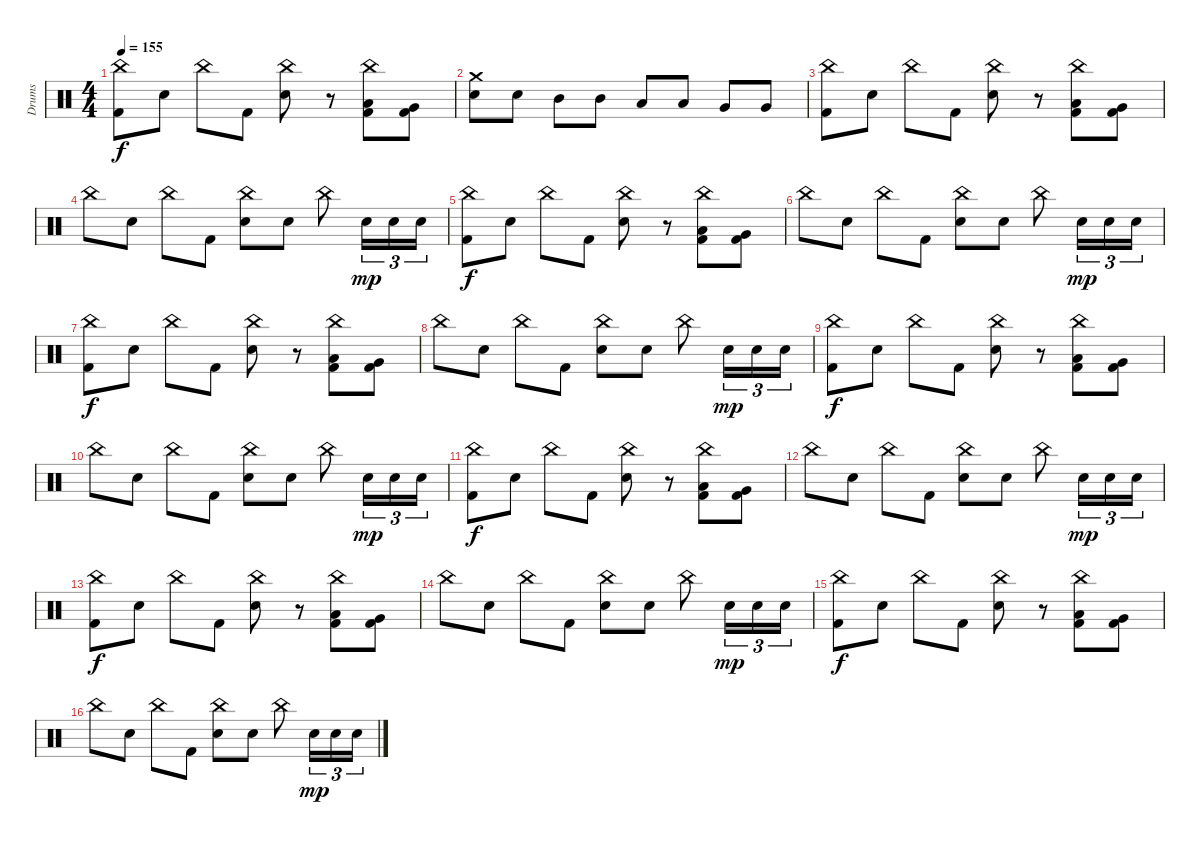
\track ("Drums" "Drums") {instrument percussion}
\staff {score}
\articulation defaults
\ts (4 4)
\tempo 155
\clef neutral
\ks c
("China (hit)" "Kick (hit) 2").8{dy f} "Electric Snare (hit)".8 "China (hit)".8 "Kick (hit) 2".8 ("China (hit)" "Electric Snare (hit)").8 r.8 ("China (hit)" "Low Tom (hit)" "Kick (hit) 2").8 ("Very Low Tom (hit)" "Kick (hit) 2").8 |
("Crash medium (hit)" "Electric Snare (hit)").8 "Electric Snare (hit)".8 "Mid Tom (hit)".8 "Mid Tom (hit)".8 "Low Tom (hit)".8 "Low Tom (hit)".8 "Very Low Tom (hit)".8 "Very Low Tom (hit)".8 |
("China (hit)" "Kick (hit) 2").8 "Electric Snare (hit)".8 "China (hit)".8 "Kick (hit) 2".8 ("China (hit)" "Electric Snare (hit)").8 r.8 ("China (hit)" "Low Tom (hit)" "Kick (hit) 2").8 ("Very Low Tom (hit)" "Kick (hit) 2").8 |
"China (hit)".8 "Electric Snare (hit)".8 "China (hit)".8 "Kick (hit) 2".8 ("China (hit)" "Electric Snare (hit)").8 "Electric Snare (hit)".8 "China (hit)".8 "Electric Snare (hit)".16{tu (3 2) dy mp} "Electric Snare (hit)".16{tu (3 2)} "Electric Snare (hit)".16{tu (3 2)} |
("China (hit)" "Kick (hit) 2").8{dy f} "Electric Snare (hit)".8 "China (hit)".8 "Kick (hit) 2".8 ("China (hit)" "Electric Snare (hit)").8 r.8 ("China (hit)" "Low Tom (hit)" "Kick (hit) 2").8 ("Very Low Tom (hit)" "Kick (hit) 2").8 |
"China (hit)".8 "Electric Snare (hit)".8 "China (hit)".8 "Kick (hit) 2".8 ("China (hit)" "Electric Snare (hit)").8 "Electric Snare (hit)".8 "China (hit)".8 "Electric Snare (hit)".16{tu (3 2) dy mp} "Electric Snare (hit)".16{tu (3 2)} "Electric Snare (hit)".16{tu (3 2)} |
("China (hit)" "Kick (hit) 2").8{dy f} "Electric Snare (hit)".8 "China (hit)".8 "Kick (hit) 2".8 ("China (hit)" "Electric Snare (hit)").8 r.8 ("China (hit)" "Low Tom (hit)" "Kick (hit) 2").8 ("Very Low Tom (hit)" "Kick (hit) 2").8 |
"China (hit)".8 "Electric Snare (hit)".8 "China (hit)".8 "Kick (hit) 2".8 ("China (hit)" "Electric Snare (hit)").8 "Electric Snare (hit)".8 "China (hit)".8 "Electric Snare (hit)".16{tu (3 2) dy mp} "Electric Snare (hit)".16{tu (3 2)} "Electric Snare (hit)".16{tu (3 2)} |
("China (hit)" "Kick (hit) 2").8{dy f} "Electric Snare (hit)".8 "China (hit)".8 "Kick (hit) 2".8 ("China (hit)" "Electric Snare (hit)").8 r.8 ("China (hit)" "Low Tom (hit)" "Kick (hit) 2").8 ("Very Low Tom (hit)" "Kick (hit) 2").8 |
"China (hit)".8 "Electric Snare (hit)".8 "China (hit)".8 "Kick (hit) 2".8 ("China (hit)" "Electric Snare (hit)").8 "Electric Snare (hit)".8 "China (hit)".8 "Electric Snare (hit)".16{tu (3 2) dy mp} "Electric Snare (hit)".16{tu (3 2)} "Electric Snare (hit)".16{tu (3 2)} |
("China (hit)" "Kick (hit) 2").8{dy f} "Electric Snare (hit)".8 "China (hit)".8 "Kick (hit) 2".8 ("China (hit)" "Electric Snare (hit)").8 r.8 ("China (hit)" "Low Tom (hit)" "Kick (hit) 2").8 ("Very Low Tom (hit)" "Kick (hit) 2").8 |
"China (hit)".8 "Electric Snare (hit)".8 "China (hit)".8 "Kick (hit) 2".8 ("China (hit)" "Electric Snare (hit)").8 "Electric Snare (hit)".8 "China (hit)".8 "Electric Snare (hit)".16{tu (3 2) dy mp} "Electric Snare (hit)".16{tu (3 2)} "Electric Snare (hit)".16{tu (3 2)} |
("China (hit)" "Kick (hit) 2").8{dy f} "Electric Snare (hit)".8 "China (hit)".8 "Kick (hit) 2".8 ("China (hit)" "Electric Snare (hit)").8 r.8 ("China (hit)" "Low Tom (hit)" "Kick (hit) 2").8 ("Very Low Tom (hit)" "Kick (hit) 2").8 |
"China (hit)".8 "Electric Snare (hit)".8 "China (hit)".8 "Kick (hit) 2".8 ("China (hit)" "Electric Snare (hit)").8 "Electric Snare (hit)".8 "China (hit)".8 "Electric Snare (hit)".16{tu (3 2) dy mp} "Electric Snare (hit)".16{tu (3 2)} "Electric Snare (hit)".16{tu (3 2)} |
("China (hit)" "Kick (hit) 2").8{dy f} "Electric Snare (hit)".8 "China (hit)".8 "Kick (hit) 2".8 ("China (hit)" "Electric Snare (hit)").8 r.8 ("China (hit)" "Low Tom (hit)" "Kick (hit) 2").8 ("Very Low Tom (hit)" "Kick (hit) 2").8 |
"China (hit)".8 "Electric Snare (hit)".8 "China (hit)".8 "Kick (hit) 2".8 ("China (hit)" "Electric Snare (hit)").8 "Electric Snare (hit)".8 "China (hit)".8 "Electric Snare (hit)".16{tu (3 2) dy mp} "Electric Snare (hit)".16{tu (3 2)} "Electric Snare (hit)".16{tu (3 2)}
